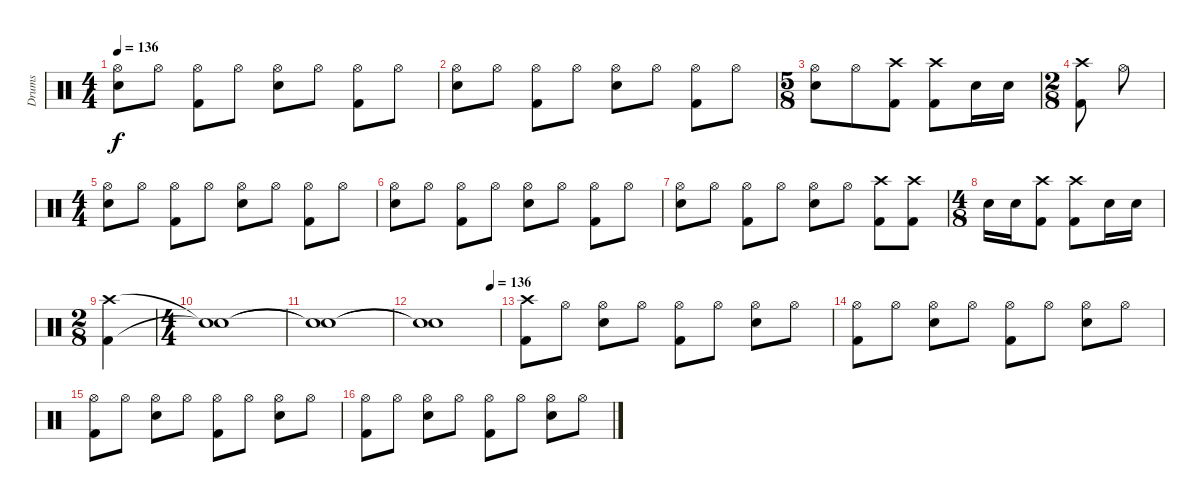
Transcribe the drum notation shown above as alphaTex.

\track ("Drums" "Drums") {instrument percussion}
\staff {score}
\articulation defaults
\ts (4 4)
\tempo 136
\clef neutral
\ks c
("Hi-Hat (open)" "Snare (hit) 2").8{dy f} "Hi-Hat (open)".8 ("Hi-Hat (open)" "Kick (hit) 2").8 "Hi-Hat (open)".8 ("Hi-Hat (open)" "Snare (hit) 2").8 "Hi-Hat (open)".8 ("Hi-Hat (open)" "Kick (hit) 2").8 "Hi-Hat (open)".8 |
("Hi-Hat (open)" "Snare (hit) 2").8 "Hi-Hat (open)".8 ("Hi-Hat (open)" "Kick (hit) 2").8 "Hi-Hat (open)".8 ("Hi-Hat (open)" "Snare (hit) 2").8 "Hi-Hat (open)".8 ("Hi-Hat (open)" "Kick (hit) 2").8 "Hi-Hat (open)".8 |
\ts (5 8)
("Hi-Hat (open)" "Snare (hit) 2").8 "Hi-Hat (open)".8 ("Crash high (hit)" "Kick (hit) 2").8 ("Crash high (hit)" "Kick (hit) 2").8 "Snare (hit) 2".16 "Snare (hit) 2".16 |
\ts (2 8)
("Crash high (hit)" "Kick (hit) 2").8 "Hi-Hat (open)".8 |
\ts (4 4)
("Hi-Hat (open)" "Snare (hit) 2").8 "Hi-Hat (open)".8 ("Hi-Hat (open)" "Kick (hit) 2").8 "Hi-Hat (open)".8 ("Hi-Hat (open)" "Snare (hit) 2").8 "Hi-Hat (open)".8 ("Hi-Hat (open)" "Kick (hit) 2").8 "Hi-Hat (open)".8 |
("Hi-Hat (open)" "Snare (hit) 2").8 "Hi-Hat (open)".8 ("Hi-Hat (open)" "Kick (hit) 2").8 "Hi-Hat (open)".8 ("Hi-Hat (open)" "Snare (hit) 2").8 "Hi-Hat (open)".8 ("Hi-Hat (open)" "Kick (hit) 2").8 "Hi-Hat (open)".8 |
("Hi-Hat (open)" "Snare (hit) 2").8 "Hi-Hat (open)".8 ("Hi-Hat (open)" "Kick (hit) 2").8 "Hi-Hat (open)".8 ("Hi-Hat (open)" "Snare (hit) 2").8 "Hi-Hat (open)".8 ("Crash high (hit)" "Kick (hit) 2").8 ("Crash high (hit)" "Kick (hit) 2").8 |
\ts (4 8)
"Snare (hit) 2".16 "Snare (hit) 2".16 ("Crash high (hit)" "Kick (hit) 2").8 ("Crash high (hit)" "Kick (hit) 2").8 "Snare (hit) 2".16 "Snare (hit) 2".16 |
\ts (2 8)
("Crash high (hit)" "Kick (hit) 2").4 |
\ts (4 4)
("Snare (hit)"{t} "Snare (hit)"{t}).1 |
("Snare (hit)"{t} "Snare (hit)"{t}).1 |
\tempo (136 0.875)
("Snare (hit)"{t} "Snare (hit)"{t}).1 |
("Crash high (hit)" "Kick (hit) 2").8 "Hi-Hat (open)".8 ("Hi-Hat (open)" "Snare (hit) 2").8 "Hi-Hat (open)".8 ("Hi-Hat (open)" "Kick (hit) 2").8 "Hi-Hat (open)".8 ("Hi-Hat (open)" "Snare (hit) 2").8 "Hi-Hat (open)".8 |
("Hi-Hat (open)" "Kick (hit) 2").8 "Hi-Hat (open)".8 ("Hi-Hat (open)" "Snare (hit) 2").8 "Hi-Hat (open)".8 ("Hi-Hat (open)" "Kick (hit) 2").8 "Hi-Hat (open)".8 ("Hi-Hat (open)" "Snare (hit) 2").8 "Hi-Hat (open)".8 |
("Hi-Hat (open)" "Kick (hit) 2").8 "Hi-Hat (open)".8 ("Hi-Hat (open)" "Snare (hit) 2").8 "Hi-Hat (open)".8 ("Hi-Hat (open)" "Kick (hit) 2").8 "Hi-Hat (open)".8 ("Hi-Hat (open)" "Snare (hit) 2").8 "Hi-Hat (open)".8 |
("Hi-Hat (open)" "Kick (hit) 2").8 "Hi-Hat (open)".8 ("Hi-Hat (open)" "Snare (hit) 2").8 "Hi-Hat (open)".8 ("Hi-Hat (open)" "Kick (hit) 2").8 "Hi-Hat (open)".8 ("Hi-Hat (open)" "Snare (hit) 2").8 "Hi-Hat (open)".8
